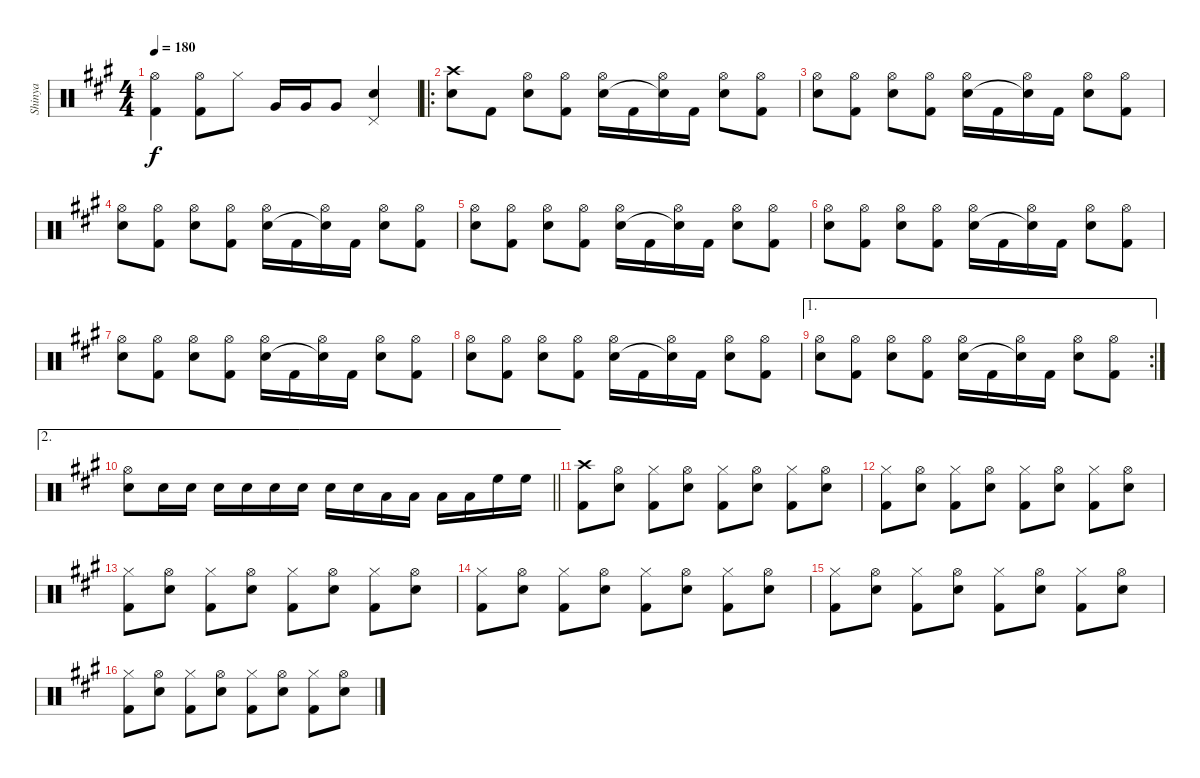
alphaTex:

\track ("Shinya" "Shinya") {instrument percussion}
\staff {score}
\articulation defaults
\ts (4 4)
\tempo 180
\clef neutral
\ks a
("Hi-Hat (open)" "Kick (hit) 2").4{dy f} ("Hi-Hat (open)" "Kick (hit) 2").8 "Hi-Hat (closed)".8 "Very Low Tom (hit)".16 "Very Low Tom (hit)".16 "Very Low Tom (hit)".8 ("Pedal Hi-Hat (hit)" "Electric Snare (hit)").4 |
\ro
("Crash high (hit)" "Electric Snare (hit)").8 "Kick (hit) 2".8 ("Hi-Hat (open)" "Electric Snare (hit)").8 ("Hi-Hat (open)" "Kick (hit) 2").8 ("Hi-Hat (open)" "Electric Snare (hit)").16 "Kick (hit) 2".16 ("Hi-Hat (open)" "Snare (hit)"{t}).16 "Kick (hit) 2".16 ("Hi-Hat (open)" "Electric Snare (hit)").8 ("Hi-Hat (open)" "Kick (hit) 2").8 |
("Hi-Hat (open)" "Electric Snare (hit)").8 ("Hi-Hat (open)" "Kick (hit) 2").8 ("Hi-Hat (open)" "Electric Snare (hit)").8 ("Hi-Hat (open)" "Kick (hit) 2").8 ("Hi-Hat (open)" "Electric Snare (hit)").16 "Kick (hit) 2".16 ("Hi-Hat (open)" "Snare (hit)"{t}).16 "Kick (hit) 2".16 ("Hi-Hat (open)" "Electric Snare (hit)").8 ("Hi-Hat (open)" "Kick (hit) 2").8 |
("Hi-Hat (open)" "Electric Snare (hit)").8 ("Hi-Hat (open)" "Kick (hit) 2").8 ("Hi-Hat (open)" "Electric Snare (hit)").8 ("Hi-Hat (open)" "Kick (hit) 2").8 ("Hi-Hat (open)" "Electric Snare (hit)").16 "Kick (hit) 2".16 ("Hi-Hat (open)" "Snare (hit)"{t}).16 "Kick (hit) 2".16 ("Hi-Hat (open)" "Electric Snare (hit)").8 ("Hi-Hat (open)" "Kick (hit) 2").8 |
("Hi-Hat (open)" "Electric Snare (hit)").8 ("Hi-Hat (open)" "Kick (hit) 2").8 ("Hi-Hat (open)" "Electric Snare (hit)").8 ("Hi-Hat (open)" "Kick (hit) 2").8 ("Hi-Hat (open)" "Electric Snare (hit)").16 "Kick (hit) 2".16 ("Hi-Hat (open)" "Snare (hit)"{t}).16 "Kick (hit) 2".16 ("Hi-Hat (open)" "Electric Snare (hit)").8 ("Hi-Hat (open)" "Kick (hit) 2").8 |
("Hi-Hat (open)" "Electric Snare (hit)").8 ("Hi-Hat (open)" "Kick (hit) 2").8 ("Hi-Hat (open)" "Electric Snare (hit)").8 ("Hi-Hat (open)" "Kick (hit) 2").8 ("Hi-Hat (open)" "Electric Snare (hit)").16 "Kick (hit) 2".16 ("Hi-Hat (open)" "Snare (hit)"{t}).16 "Kick (hit) 2".16 ("Hi-Hat (open)" "Electric Snare (hit)").8 ("Hi-Hat (open)" "Kick (hit) 2").8 |
("Hi-Hat (open)" "Electric Snare (hit)").8 ("Hi-Hat (open)" "Kick (hit) 2").8 ("Hi-Hat (open)" "Electric Snare (hit)").8 ("Hi-Hat (open)" "Kick (hit) 2").8 ("Hi-Hat (open)" "Electric Snare (hit)").16 "Kick (hit) 2".16 ("Hi-Hat (open)" "Snare (hit)"{t}).16 "Kick (hit) 2".16 ("Hi-Hat (open)" "Electric Snare (hit)").8 ("Hi-Hat (open)" "Kick (hit) 2").8 |
("Hi-Hat (open)" "Electric Snare (hit)").8 ("Hi-Hat (open)" "Kick (hit) 2").8 ("Hi-Hat (open)" "Electric Snare (hit)").8 ("Hi-Hat (open)" "Kick (hit) 2").8 ("Hi-Hat (open)" "Electric Snare (hit)").16 "Kick (hit) 2".16 ("Hi-Hat (open)" "Snare (hit)"{t}).16 "Kick (hit) 2".16 ("Hi-Hat (open)" "Electric Snare (hit)").8 ("Hi-Hat (open)" "Kick (hit) 2").8 |
\ae 1
\rc 2
("Hi-Hat (open)" "Electric Snare (hit)").8 ("Hi-Hat (open)" "Kick (hit) 2").8 ("Hi-Hat (open)" "Electric Snare (hit)").8 ("Hi-Hat (open)" "Kick (hit) 2").8 ("Hi-Hat (open)" "Electric Snare (hit)").16 "Kick (hit) 2".16 ("Hi-Hat (open)" "Snare (hit)"{t}).16 "Kick (hit) 2".16 ("Hi-Hat (open)" "Electric Snare (hit)").8 ("Hi-Hat (open)" "Kick (hit) 2").8 |
\ae 2
\barLineRight lightlight
("Hi-Hat (open)" "Electric Snare (hit)").8 "Electric Snare (hit)".16 "Electric Snare (hit)".16 "Electric Snare (hit)".16 "Electric Snare (hit)".16 "Electric Snare (hit)".16 "Electric Snare (hit)".16 "Electric Snare (hit)".16 "Electric Snare (hit)".16 "Low Tom (hit)".16 "Low Tom (hit)".16 "Low Tom (hit)".16 "Low Tom (hit)".16 "High Floor Tom (hit)".16 "High Floor Tom (hit)".16 |
("Crash high (hit)" "Kick (hit) 2").8 ("Hi-Hat (open)" "Electric Snare (hit)").8 ("Hi-Hat (closed)" "Kick (hit) 2").8 ("Hi-Hat (open)" "Electric Snare (hit)").8 ("Hi-Hat (closed)" "Kick (hit) 2").8 ("Hi-Hat (open)" "Electric Snare (hit)").8 ("Hi-Hat (closed)" "Kick (hit) 2").8 ("Hi-Hat (open)" "Electric Snare (hit)").8 |
("Hi-Hat (closed)" "Kick (hit) 2").8 ("Hi-Hat (open)" "Electric Snare (hit)").8 ("Hi-Hat (closed)" "Kick (hit) 2").8 ("Hi-Hat (open)" "Electric Snare (hit)").8 ("Hi-Hat (closed)" "Kick (hit) 2").8 ("Hi-Hat (open)" "Electric Snare (hit)").8 ("Hi-Hat (closed)" "Kick (hit) 2").8 ("Hi-Hat (open)" "Electric Snare (hit)").8 |
("Hi-Hat (closed)" "Kick (hit) 2").8 ("Hi-Hat (open)" "Electric Snare (hit)").8 ("Hi-Hat (closed)" "Kick (hit) 2").8 ("Hi-Hat (open)" "Electric Snare (hit)").8 ("Hi-Hat (closed)" "Kick (hit) 2").8 ("Hi-Hat (open)" "Electric Snare (hit)").8 ("Hi-Hat (closed)" "Kick (hit) 2").8 ("Hi-Hat (open)" "Electric Snare (hit)").8 |
("Hi-Hat (closed)" "Kick (hit) 2").8 ("Hi-Hat (open)" "Electric Snare (hit)").8 ("Hi-Hat (closed)" "Kick (hit) 2").8 ("Hi-Hat (open)" "Electric Snare (hit)").8 ("Hi-Hat (closed)" "Kick (hit) 2").8 ("Hi-Hat (open)" "Electric Snare (hit)").8 ("Hi-Hat (closed)" "Kick (hit) 2").8 ("Hi-Hat (open)" "Electric Snare (hit)").8 |
("Hi-Hat (closed)" "Kick (hit) 2").8 ("Hi-Hat (open)" "Electric Snare (hit)").8 ("Hi-Hat (closed)" "Kick (hit) 2").8 ("Hi-Hat (open)" "Electric Snare (hit)").8 ("Hi-Hat (closed)" "Kick (hit) 2").8 ("Hi-Hat (open)" "Electric Snare (hit)").8 ("Hi-Hat (closed)" "Kick (hit) 2").8 ("Hi-Hat (open)" "Electric Snare (hit)").8 |
("Hi-Hat (closed)" "Kick (hit) 2").8 ("Hi-Hat (open)" "Electric Snare (hit)").8 ("Hi-Hat (closed)" "Kick (hit) 2").8 ("Hi-Hat (open)" "Electric Snare (hit)").8 ("Hi-Hat (closed)" "Kick (hit) 2").8 ("Hi-Hat (open)" "Electric Snare (hit)").8 ("Hi-Hat (closed)" "Kick (hit) 2").8 ("Hi-Hat (open)" "Electric Snare (hit)").8
